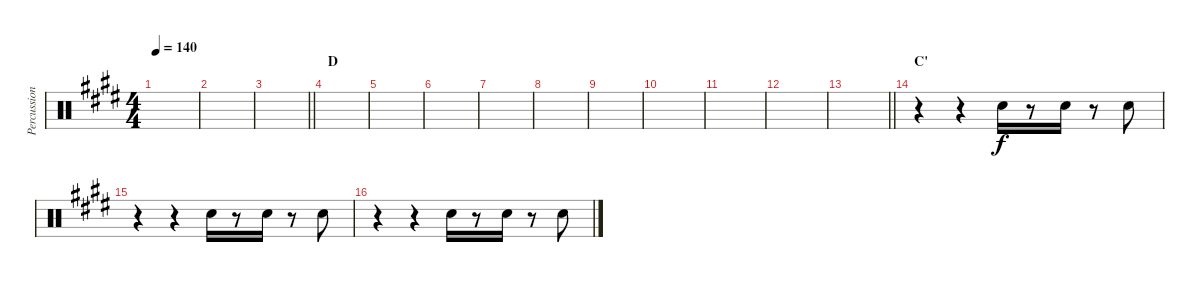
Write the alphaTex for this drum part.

\track ("Percussion" "Percussion") {instrument percussion}
\staff {score}
\articulation defaults
\ts (4 4)
\tempo 140
\clef neutral
\ks e
|
|
\barLineRight lightlight
|
\section ("" "D")
|
|
|
|
|
|
|
|
|
\barLineRight lightlight
|
\section ("" "C'")
r.4 r.4 "Hand Clap (hit)".16 r.8 "Hand Clap (hit)".16 r.8 "Hand Clap (hit)".8 |
r.4 r.4 "Hand Clap (hit)".16 r.8 "Hand Clap (hit)".16 r.8 "Hand Clap (hit)".8 |
r.4 r.4 "Hand Clap (hit)".16 r.8 "Hand Clap (hit)".16 r.8 "Hand Clap (hit)".8
